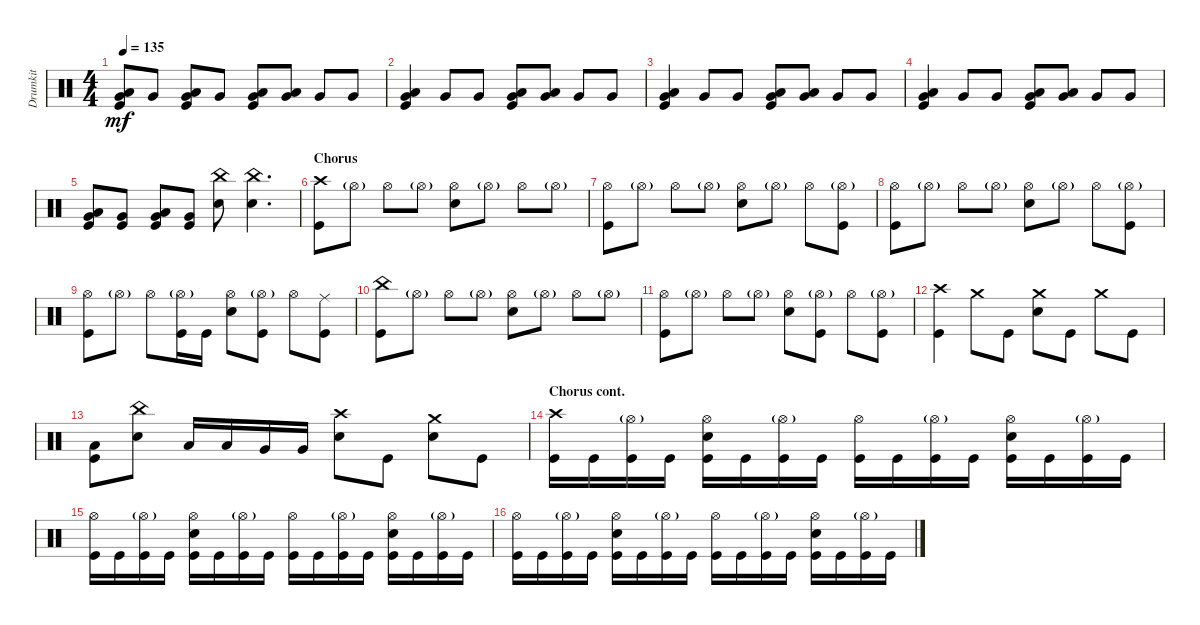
\track ("Drumkit" "Drumkit") {instrument percussion}
\staff {score}
\articulation defaults
\ts (4 4)
\tempo 135
\clef neutral
\ks c
("Kick (hit)" "Very Low Tom (hit)" "Low Floor Tom (hit)").8{dy mf} "Very Low Tom (hit)".8 ("Kick (hit)" "Very Low Tom (hit)" "Low Floor Tom (hit)").8 "Very Low Tom (hit)".8 ("Low Floor Tom (hit)" "Very Low Tom (hit)" "Kick (hit)").8 ("Very Low Tom (hit)" "Low Floor Tom (hit)").8 "Very Low Tom (hit)".8 "Very Low Tom (hit)".8 |
("Kick (hit)" "Very Low Tom (hit)" "Low Floor Tom (hit)").4 "Very Low Tom (hit)".8 "Very Low Tom (hit)".8 ("Low Floor Tom (hit)" "Kick (hit)" "Very Low Tom (hit)").8 ("Low Floor Tom (hit)" "Very Low Tom (hit)").8 "Very Low Tom (hit)".8 "Very Low Tom (hit)".8 |
("Kick (hit)" "Very Low Tom (hit)" "Low Floor Tom (hit)").4 "Very Low Tom (hit)".8 "Very Low Tom (hit)".8 ("Low Floor Tom (hit)" "Kick (hit)" "Very Low Tom (hit)").8 ("Low Floor Tom (hit)" "Very Low Tom (hit)").8 "Very Low Tom (hit)".8 "Very Low Tom (hit)".8 |
("Kick (hit)" "Very Low Tom (hit)" "Low Floor Tom (hit)").4 "Very Low Tom (hit)".8 "Very Low Tom (hit)".8 ("Low Floor Tom (hit)" "Kick (hit)" "Very Low Tom (hit)").8 ("Low Floor Tom (hit)" "Very Low Tom (hit)").8 "Very Low Tom (hit)".8 "Very Low Tom (hit)".8 |
("Kick (hit)" "Very Low Tom (hit)" "Low Floor Tom (hit)").8 ("Very Low Tom (hit)" "Kick (hit)").8 ("Kick (hit)" "Very Low Tom (hit)" "Low Floor Tom (hit)").8 ("Very Low Tom (hit)" "Kick (hit)").8 ("Snare (hit) 2" "China (hit)").8 ("Snare (hit) 2" "China (hit)").4{d} |
\section ("" "Chorus")
("Kick (hit)" "Crash high (hit)").8 "Hi-Hat (open)"{g}.8 "Hi-Hat (open)".8 "Hi-Hat (open)"{g}.8 ("Hi-Hat (open)" "Snare (hit) 2").8 "Hi-Hat (open)"{g}.8 "Hi-Hat (open)".8 "Hi-Hat (open)"{g}.8 |
("Hi-Hat (open)" "Kick (hit)").8 "Hi-Hat (open)"{g}.8 "Hi-Hat (open)".8 "Hi-Hat (open)"{g}.8 ("Hi-Hat (open)" "Snare (hit) 2").8 "Hi-Hat (open)"{g}.8 "Hi-Hat (open)".8 ("Kick (hit)" "Hi-Hat (open)"{g}).8 |
("Hi-Hat (open)" "Kick (hit)").8 "Hi-Hat (open)"{g}.8 "Hi-Hat (open)".8 "Hi-Hat (open)"{g}.8 ("Hi-Hat (open)" "Snare (hit) 2").8 "Hi-Hat (open)"{g}.8 "Hi-Hat (open)".8 ("Kick (hit)" "Hi-Hat (open)"{g}).8 |
("Hi-Hat (open)" "Kick (hit)").8 "Hi-Hat (open)"{g}.8 "Hi-Hat (open)".8 ("Kick (hit)" "Hi-Hat (open)"{g}).16 "Kick (hit)".16 ("Hi-Hat (open)" "Snare (hit) 2").8 ("Kick (hit)" "Hi-Hat (open)"{g}).8 "Hi-Hat (open)".8 ("Kick (hit)" "Ride (middle)").8 |
("Kick (hit)" "China (hit)").8 "Hi-Hat (open)"{g}.8 "Hi-Hat (open)".8 "Hi-Hat (open)"{g}.8 ("Hi-Hat (open)" "Snare (hit) 2").8 "Hi-Hat (open)"{g}.8 "Hi-Hat (open)".8 "Hi-Hat (open)"{g}.8 |
("Hi-Hat (open)" "Kick (hit)").8 "Hi-Hat (open)"{g}.8 "Hi-Hat (open)".8 "Hi-Hat (open)"{g}.8 ("Hi-Hat (open)" "Snare (hit) 2").8 ("Kick (hit)" "Hi-Hat (open)"{g}).8 "Hi-Hat (open)".8 ("Kick (hit)" "Hi-Hat (open)"{g}).8 |
("Kick (hit)" "Crash high (hit)").4 "Crash medium (hit)".8 "Kick (hit)".8 ("Snare (hit) 2" "Crash medium (hit)").8 "Kick (hit)".8 "Crash medium (hit)".8 "Kick (hit)".8 |
("Kick (hit)" "Low Floor Tom (hit)").8 ("Snare (hit) 2" "China (hit)").8 "Low Tom (hit)".16 "Low Tom (hit)".16 "Very Low Tom (hit)".16 "Very Low Tom (hit)".16 ("Snare (hit) 2" "Crash high (hit)").8 "Kick (hit)".8 ("Snare (hit) 2" "Crash medium (hit)").8 "Kick (hit)".8 |
\section ("" "Chorus cont.")
("Kick (hit)" "Crash high (hit)").16 "Kick (hit)".16 ("Kick (hit)" "Hi-Hat (open)"{g}).16 "Kick (hit)".16 ("Kick (hit)" "Snare (hit) 2" "Hi-Hat (open)").16 "Kick (hit)".16 ("Kick (hit)" "Hi-Hat (open)"{g}).16 "Kick (hit)".16 ("Kick (hit)" "Hi-Hat (open)").16 "Kick (hit)".16 ("Kick (hit)" "Hi-Hat (open)"{g}).16 "Kick (hit)".16 ("Kick (hit)" "Snare (hit) 2" "Hi-Hat (open)").16 "Kick (hit)".16 ("Kick (hit)" "Hi-Hat (open)"{g}).16 "Kick (hit)".16 |
("Kick (hit)" "Hi-Hat (open)").16 "Kick (hit)".16 ("Kick (hit)" "Hi-Hat (open)"{g}).16 "Kick (hit)".16 ("Kick (hit)" "Snare (hit) 2" "Hi-Hat (open)").16 "Kick (hit)".16 ("Kick (hit)" "Hi-Hat (open)"{g}).16 "Kick (hit)".16 ("Kick (hit)" "Hi-Hat (open)").16 "Kick (hit)".16 ("Kick (hit)" "Hi-Hat (open)"{g}).16 "Kick (hit)".16 ("Kick (hit)" "Snare (hit) 2" "Hi-Hat (open)").16 "Kick (hit)".16 ("Kick (hit)" "Hi-Hat (open)"{g}).16 "Kick (hit)".16 |
("Kick (hit)" "Hi-Hat (open)").16 "Kick (hit)".16 ("Kick (hit)" "Hi-Hat (open)"{g}).16 "Kick (hit)".16 ("Kick (hit)" "Snare (hit) 2" "Hi-Hat (open)").16 "Kick (hit)".16 ("Kick (hit)" "Hi-Hat (open)"{g}).16 "Kick (hit)".16 ("Kick (hit)" "Hi-Hat (open)").16 "Kick (hit)".16 ("Kick (hit)" "Hi-Hat (open)"{g}).16 "Kick (hit)".16 ("Kick (hit)" "Snare (hit) 2" "Hi-Hat (open)").16 "Kick (hit)".16 ("Kick (hit)" "Hi-Hat (open)"{g}).16 "Kick (hit)".16
